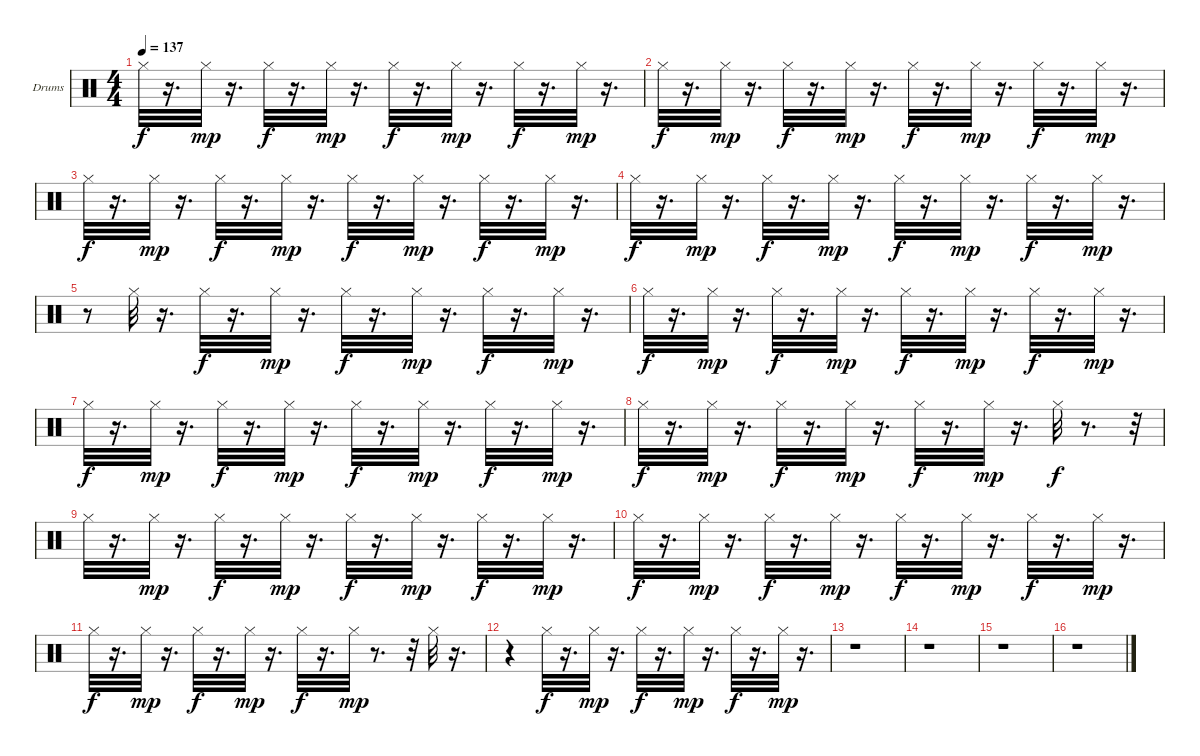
\bracketExtendMode groupsimilarinstruments
\firstSystemTrackNameOrientation horizontal
\otherSystemsTrackNameOrientation horizontal
\track ("Drumkit" "Drums") {instrument percussion}
\staff {score}
\articulation defaults
\ts (4 4)
\tempo 137
\clef neutral
\ks c "Hi-Hat (closed)".32{dy f}
r.16{d} "Hi-Hat (closed)".32{dy mp} r.16{d} "Hi-Hat (closed)".32{dy f} r.16{d} "Hi-Hat (closed)".32{dy mp} r.16{d} "Hi-Hat (closed)".32{dy f} r.16{d} "Hi-Hat (closed)".32{dy mp} r.16{d} "Hi-Hat (closed)".32{dy f} r.16{d} "Hi-Hat (closed)".32{dy mp} r.16{d} |
"Hi-Hat (closed)".32{dy f} r.16{d} "Hi-Hat (closed)".32{dy mp} r.16{d} "Hi-Hat (closed)".32{dy f} r.16{d} "Hi-Hat (closed)".32{dy mp} r.16{d} "Hi-Hat (closed)".32{dy f} r.16{d} "Hi-Hat (closed)".32{dy mp} r.16{d} "Hi-Hat (closed)".32{dy f} r.16{d} "Hi-Hat (closed)".32{dy mp} r.16{d} |
"Hi-Hat (closed)".32{dy f} r.16{d} "Hi-Hat (closed)".32{dy mp} r.16{d} "Hi-Hat (closed)".32{dy f} r.16{d} "Hi-Hat (closed)".32{dy mp} r.16{d} "Hi-Hat (closed)".32{dy f} r.16{d} "Hi-Hat (closed)".32{dy mp} r.16{d} "Hi-Hat (closed)".32{dy f} r.16{d} "Hi-Hat (closed)".32{dy mp} r.16{d} |
"Hi-Hat (closed)".32{dy f} r.16{d} "Hi-Hat (closed)".32{dy mp} r.16{d} "Hi-Hat (closed)".32{dy f} r.16{d} "Hi-Hat (closed)".32{dy mp} r.16{d} "Hi-Hat (closed)".32{dy f} r.16{d} "Hi-Hat (closed)".32{dy mp} r.16{d} "Hi-Hat (closed)".32{dy f} r.16{d} "Hi-Hat (closed)".32{dy mp} r.16{d} |
r.8 "Hi-Hat (closed)".32 r.16{d} "Hi-Hat (closed)".32{dy f} r.16{d} "Hi-Hat (closed)".32{dy mp} r.16{d} "Hi-Hat (closed)".32{dy f} r.16{d} "Hi-Hat (closed)".32{dy mp} r.16{d} "Hi-Hat (closed)".32{dy f} r.16{d} "Hi-Hat (closed)".32{dy mp} r.16{d} |
"Hi-Hat (closed)".32{dy f} r.16{d} "Hi-Hat (closed)".32{dy mp} r.16{d} "Hi-Hat (closed)".32{dy f} r.16{d} "Hi-Hat (closed)".32{dy mp} r.16{d} "Hi-Hat (closed)".32{dy f} r.16{d} "Hi-Hat (closed)".32{dy mp} r.16{d} "Hi-Hat (closed)".32{dy f} r.16{d} "Hi-Hat (closed)".32{dy mp} r.16{d} |
"Hi-Hat (closed)".32{dy f} r.16{d} "Hi-Hat (closed)".32{dy mp} r.16{d} "Hi-Hat (closed)".32{dy f} r.16{d} "Hi-Hat (closed)".32{dy mp} r.16{d} "Hi-Hat (closed)".32{dy f} r.16{d} "Hi-Hat (closed)".32{dy mp} r.16{d} "Hi-Hat (closed)".32{dy f} r.16{d} "Hi-Hat (closed)".32{dy mp} r.16{d} |
"Hi-Hat (closed)".32{dy f} r.16{d} "Hi-Hat (closed)".32{dy mp} r.16{d} "Hi-Hat (closed)".32{dy f} r.16{d} "Hi-Hat (closed)".32{dy mp} r.16{d} "Hi-Hat (closed)".32{dy f} r.16{d} "Hi-Hat (closed)".32{dy mp} r.16{d} "Hi-Hat (closed)".32{dy f} r.8{d} r.32 |
"Hi-Hat (closed)".32 r.16{d} "Hi-Hat (closed)".32{dy mp} r.16{d} "Hi-Hat (closed)".32{dy f} r.16{d} "Hi-Hat (closed)".32{dy mp} r.16{d} "Hi-Hat (closed)".32{dy f} r.16{d} "Hi-Hat (closed)".32{dy mp} r.16{d} "Hi-Hat (closed)".32{dy f} r.16{d} "Hi-Hat (closed)".32{dy mp} r.16{d} |
"Hi-Hat (closed)".32{dy f} r.16{d} "Hi-Hat (closed)".32{dy mp} r.16{d} "Hi-Hat (closed)".32{dy f} r.16{d} "Hi-Hat (closed)".32{dy mp} r.16{d} "Hi-Hat (closed)".32{dy f} r.16{d} "Hi-Hat (closed)".32{dy mp} r.16{d} "Hi-Hat (closed)".32{dy f} r.16{d} "Hi-Hat (closed)".32{dy mp} r.16{d} |
"Hi-Hat (closed)".32{dy f} r.16{d} "Hi-Hat (closed)".32{dy mp} r.16{d} "Hi-Hat (closed)".32{dy f} r.16{d} "Hi-Hat (closed)".32{dy mp} r.16{d} "Hi-Hat (closed)".32{dy f} r.16{d} "Hi-Hat (closed)".32{dy mp} r.8{d} r.32 "Hi-Hat (closed)".32 r.16{d} |
r.4 "Hi-Hat (closed)".32{dy f} r.16{d} "Hi-Hat (closed)".32{dy mp} r.16{d} "Hi-Hat (closed)".32{dy f} r.16{d} "Hi-Hat (closed)".32{dy mp} r.16{d} "Hi-Hat (closed)".32{dy f} r.16{d} "Hi-Hat (closed)".32{dy mp} r.16{d} |
r.1 |
r.1 |
r.1 |
r.1
